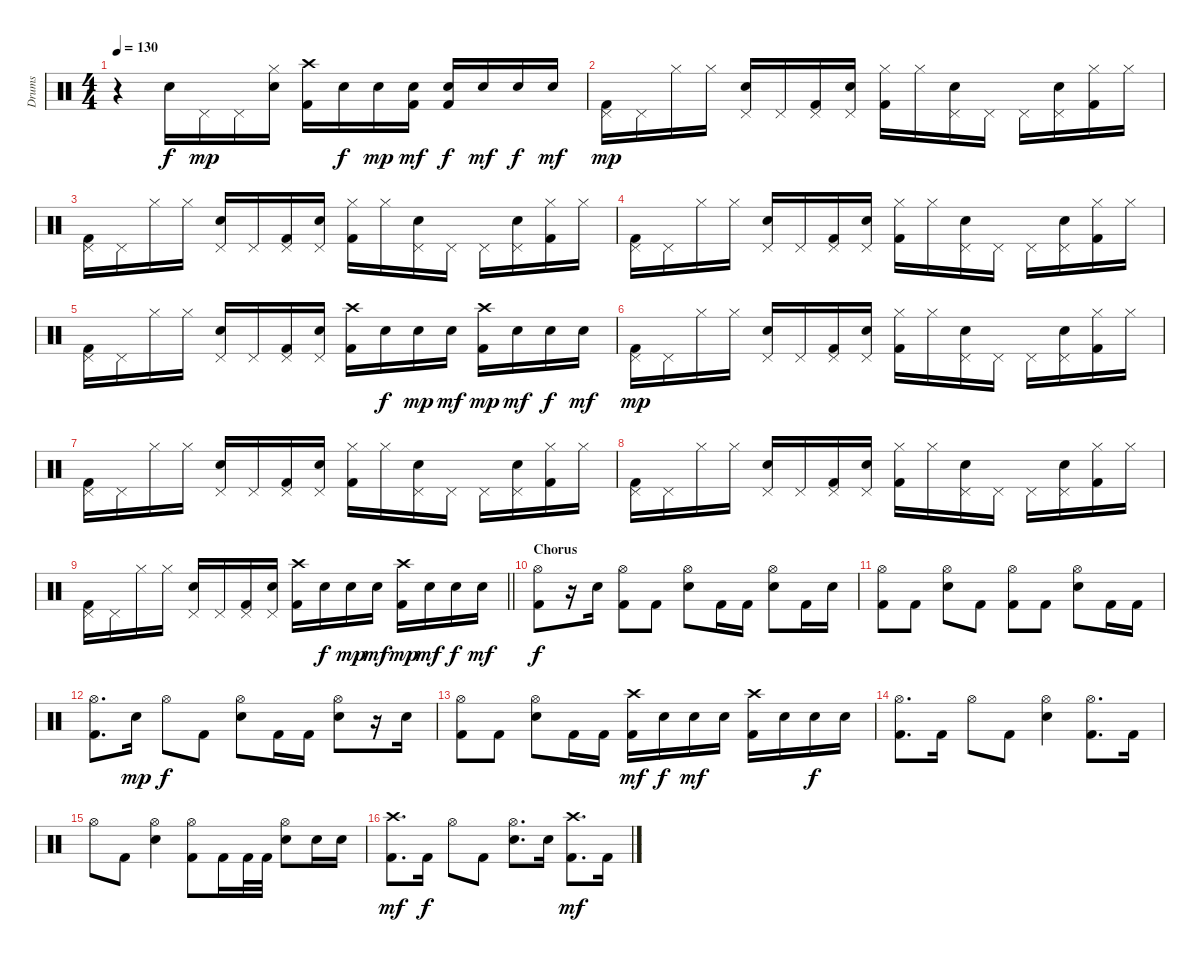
\track ("Drums" "Drums") {instrument percussion}
\staff {score}
\articulation defaults
\ts (4 4)
\tempo 130
\clef neutral
\ks c
r.4{dy mp} "Snare (hit) 2".16{dy f} "Pedal Hi-Hat (hit)".16{dy mp} "Pedal Hi-Hat (hit)".16 ("Hi-Hat (closed)" "Snare (hit) 2").16 ("Crash high (hit)" "Kick (hit) 2").16 "Snare (hit) 2".16{dy f} "Snare (hit) 2".16{dy mp} ("Snare (hit) 2" "Kick (hit) 2").16{dy mf} ("Snare (hit) 2" "Kick (hit) 2").16{dy f} "Snare (hit) 2".16{dy mf} "Snare (hit) 2".16{dy f} "Snare (hit) 2".16{dy mf} |
("Pedal Hi-Hat (hit)" "Kick (hit) 2").16{dy mp} "Pedal Hi-Hat (hit)".16 "Hi-Hat (closed)".16 "Hi-Hat (closed)".16 ("Pedal Hi-Hat (hit)" "Snare (hit) 2").16 "Pedal Hi-Hat (hit)".16 ("Pedal Hi-Hat (hit)" "Kick (hit) 2").16 ("Pedal Hi-Hat (hit)" "Snare (hit) 2").16 ("Hi-Hat (closed)" "Kick (hit) 2").16 "Hi-Hat (closed)".16 ("Pedal Hi-Hat (hit)" "Snare (hit) 2").16 "Pedal Hi-Hat (hit)".16 "Pedal Hi-Hat (hit)".16 ("Pedal Hi-Hat (hit)" "Snare (hit) 2").16 ("Hi-Hat (closed)" "Kick (hit) 2").16 "Hi-Hat (closed)".16 |
("Pedal Hi-Hat (hit)" "Kick (hit) 2").16 "Pedal Hi-Hat (hit)".16 "Hi-Hat (closed)".16 "Hi-Hat (closed)".16 ("Pedal Hi-Hat (hit)" "Snare (hit) 2").16 "Pedal Hi-Hat (hit)".16 ("Pedal Hi-Hat (hit)" "Kick (hit) 2").16 ("Pedal Hi-Hat (hit)" "Snare (hit) 2").16 ("Hi-Hat (closed)" "Kick (hit) 2").16 "Hi-Hat (closed)".16 ("Pedal Hi-Hat (hit)" "Snare (hit) 2").16 "Pedal Hi-Hat (hit)".16 "Pedal Hi-Hat (hit)".16 ("Pedal Hi-Hat (hit)" "Snare (hit) 2").16 ("Hi-Hat (closed)" "Kick (hit) 2").16 "Hi-Hat (closed)".16 |
("Pedal Hi-Hat (hit)" "Kick (hit) 2").16 "Pedal Hi-Hat (hit)".16 "Hi-Hat (closed)".16 "Hi-Hat (closed)".16 ("Pedal Hi-Hat (hit)" "Snare (hit) 2").16 "Pedal Hi-Hat (hit)".16 ("Pedal Hi-Hat (hit)" "Kick (hit) 2").16 ("Pedal Hi-Hat (hit)" "Snare (hit) 2").16 ("Hi-Hat (closed)" "Kick (hit) 2").16 "Hi-Hat (closed)".16 ("Pedal Hi-Hat (hit)" "Snare (hit) 2").16 "Pedal Hi-Hat (hit)".16 "Pedal Hi-Hat (hit)".16 ("Pedal Hi-Hat (hit)" "Snare (hit) 2").16 ("Hi-Hat (closed)" "Kick (hit) 2").16 "Hi-Hat (closed)".16 |
("Pedal Hi-Hat (hit)" "Kick (hit) 2").16 "Pedal Hi-Hat (hit)".16 "Hi-Hat (closed)".16 "Hi-Hat (closed)".16 ("Pedal Hi-Hat (hit)" "Snare (hit) 2").16 "Pedal Hi-Hat (hit)".16 ("Pedal Hi-Hat (hit)" "Kick (hit) 2").16 ("Pedal Hi-Hat (hit)" "Snare (hit) 2").16 ("Crash high (hit)" "Kick (hit) 2").16 "Snare (hit) 2".16{dy f} "Snare (hit) 2".16{dy mp} "Snare (hit) 2".16{dy mf} ("Crash high (hit)" "Kick (hit) 2").16{dy mp} "Snare (hit) 2".16{dy mf} "Snare (hit) 2".16{dy f} "Snare (hit) 2".16{dy mf} |
("Pedal Hi-Hat (hit)" "Kick (hit) 2").16{dy mp} "Pedal Hi-Hat (hit)".16 "Hi-Hat (closed)".16 "Hi-Hat (closed)".16 ("Pedal Hi-Hat (hit)" "Snare (hit) 2").16 "Pedal Hi-Hat (hit)".16 ("Pedal Hi-Hat (hit)" "Kick (hit) 2").16 ("Pedal Hi-Hat (hit)" "Snare (hit) 2").16 ("Hi-Hat (closed)" "Kick (hit) 2").16 "Hi-Hat (closed)".16 ("Pedal Hi-Hat (hit)" "Snare (hit) 2").16 "Pedal Hi-Hat (hit)".16 "Pedal Hi-Hat (hit)".16 ("Pedal Hi-Hat (hit)" "Snare (hit) 2").16 ("Hi-Hat (closed)" "Kick (hit) 2").16 "Hi-Hat (closed)".16 |
("Pedal Hi-Hat (hit)" "Kick (hit) 2").16 "Pedal Hi-Hat (hit)".16 "Hi-Hat (closed)".16 "Hi-Hat (closed)".16 ("Pedal Hi-Hat (hit)" "Snare (hit) 2").16 "Pedal Hi-Hat (hit)".16 ("Pedal Hi-Hat (hit)" "Kick (hit) 2").16 ("Pedal Hi-Hat (hit)" "Snare (hit) 2").16 ("Hi-Hat (closed)" "Kick (hit) 2").16 "Hi-Hat (closed)".16 ("Pedal Hi-Hat (hit)" "Snare (hit) 2").16 "Pedal Hi-Hat (hit)".16 "Pedal Hi-Hat (hit)".16 ("Pedal Hi-Hat (hit)" "Snare (hit) 2").16 ("Hi-Hat (closed)" "Kick (hit) 2").16 "Hi-Hat (closed)".16 |
("Pedal Hi-Hat (hit)" "Kick (hit) 2").16 "Pedal Hi-Hat (hit)".16 "Hi-Hat (closed)".16 "Hi-Hat (closed)".16 ("Pedal Hi-Hat (hit)" "Snare (hit) 2").16 "Pedal Hi-Hat (hit)".16 ("Pedal Hi-Hat (hit)" "Kick (hit) 2").16 ("Pedal Hi-Hat (hit)" "Snare (hit) 2").16 ("Hi-Hat (closed)" "Kick (hit) 2").16 "Hi-Hat (closed)".16 ("Pedal Hi-Hat (hit)" "Snare (hit) 2").16 "Pedal Hi-Hat (hit)".16 "Pedal Hi-Hat (hit)".16 ("Pedal Hi-Hat (hit)" "Snare (hit) 2").16 ("Hi-Hat (closed)" "Kick (hit) 2").16 "Hi-Hat (closed)".16 |
\barLineRight lightlight
("Pedal Hi-Hat (hit)" "Kick (hit) 2").16 "Pedal Hi-Hat (hit)".16 "Hi-Hat (closed)".16 "Hi-Hat (closed)".16 ("Pedal Hi-Hat (hit)" "Snare (hit) 2").16 "Pedal Hi-Hat (hit)".16 ("Pedal Hi-Hat (hit)" "Kick (hit) 2").16 ("Pedal Hi-Hat (hit)" "Snare (hit) 2").16 ("Crash high (hit)" "Kick (hit) 2").16 "Snare (hit) 2".16{dy f} "Snare (hit) 2".16{dy mp} "Snare (hit) 2".16{dy mf} ("Crash high (hit)" "Kick (hit) 2").16{dy mp} "Snare (hit) 2".16{dy mf} "Snare (hit) 2".16{dy f} "Snare (hit) 2".16{dy mf} |
\section ("" "Chorus")
("Hi-Hat (open)" "Kick (hit) 2").8{dy f} r.16 "Snare (hit) 2".16 ("Hi-Hat (open)" "Kick (hit) 2").8 "Kick (hit) 2".8 ("Hi-Hat (open)" "Snare (hit) 2").8 "Kick (hit) 2".16 "Kick (hit) 2".16 ("Hi-Hat (open)" "Snare (hit) 2").8 "Kick (hit) 2".16 "Snare (hit) 2".16 |
("Hi-Hat (open)" "Kick (hit) 2").8 "Kick (hit) 2".8 ("Hi-Hat (open)" "Snare (hit) 2").8 "Kick (hit) 2".8 ("Hi-Hat (open)" "Kick (hit) 2").8 "Kick (hit) 2".8 ("Hi-Hat (open)" "Snare (hit) 2").8 "Kick (hit) 2".16 "Kick (hit) 2".16 |
("Hi-Hat (open)" "Kick (hit) 2").8{d} "Snare (hit) 2".16{dy mp} "Hi-Hat (open)".8{dy f} "Kick (hit) 2".8 ("Hi-Hat (open)" "Snare (hit) 2").8 "Kick (hit) 2".16 "Kick (hit) 2".16 ("Hi-Hat (open)" "Snare (hit) 2").8 r.16 "Snare (hit) 2".16 |
("Hi-Hat (open)" "Kick (hit) 2").8 "Kick (hit) 2".8 ("Hi-Hat (open)" "Snare (hit) 2").8 "Kick (hit) 2".16 "Kick (hit) 2".16 ("Crash high (hit)" "Kick (hit) 2").16{dy mf} "Snare (hit) 2".16{dy f} "Snare (hit) 2".16{dy mf} "Snare (hit) 2".16 ("Crash high (hit)" "Kick (hit) 2").16 "Snare (hit) 2".16 "Snare (hit) 2".16{dy f} "Snare (hit) 2".16 |
("Hi-Hat (open)" "Kick (hit) 2").8{d} "Kick (hit) 2".16 "Hi-Hat (open)".8 "Kick (hit) 2".8 ("Hi-Hat (open)" "Snare (hit) 2").4 ("Hi-Hat (open)" "Kick (hit) 2").8{d} "Kick (hit) 2".16 |
"Hi-Hat (open)".8 "Kick (hit) 2".8 ("Hi-Hat (open)" "Snare (hit) 2").4 ("Hi-Hat (open)" "Kick (hit) 2").8 "Kick (hit) 2".16 "Kick (hit) 2".32 "Kick (hit) 2".32 ("Hi-Hat (open)" "Snare (hit) 2").8 "Snare (hit) 2".16 "Snare (hit) 2".16 |
("Crash high (hit)" "Kick (hit) 2").8{d dy mf} "Kick (hit) 2".16{dy f} "Hi-Hat (open)".8 "Kick (hit) 2".8 ("Hi-Hat (open)" "Snare (hit) 2").8{d} "Snare (hit) 2".16 ("Crash high (hit)" "Kick (hit) 2").8{d dy mf} "Kick (hit) 2".16
